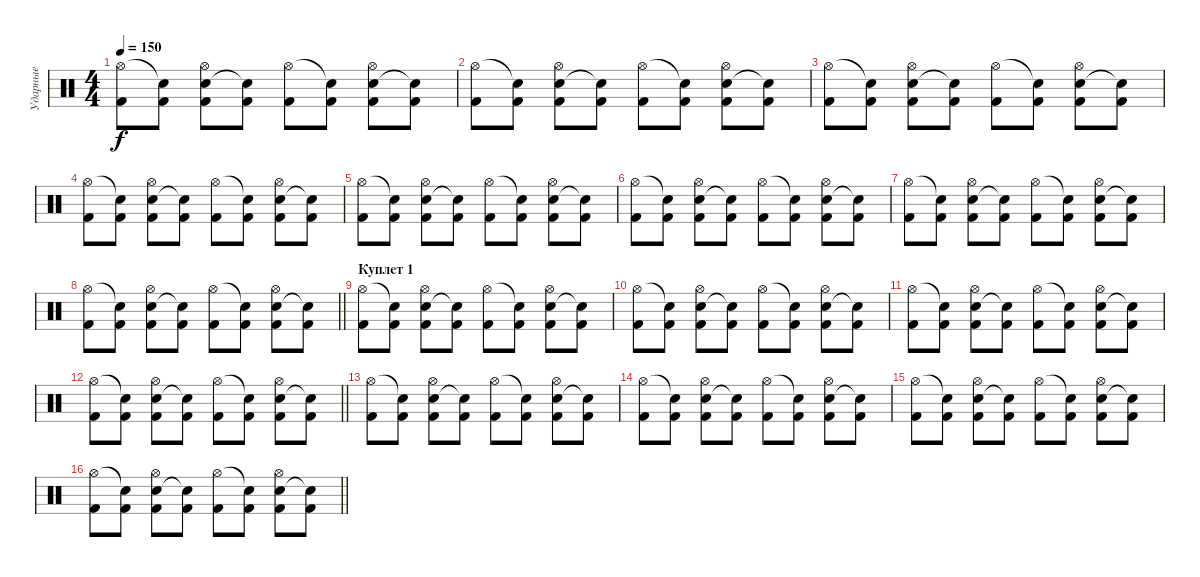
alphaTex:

\track ("Ударные" "Ударные") {instrument percussion}
\staff {score}
\articulation defaults
\ts (4 4)
\tempo 150
\clef neutral
\ks c
("Hi-Hat (open)" "Kick (hit) 2").8{dy f} ("Snare (hit)"{t} "Kick (hit) 2").8 ("Electric Snare (hit)" "Hi-Hat (open)" "Kick (hit) 2").8 ("Snare (hit)"{t} "Kick (hit) 2").8 ("Hi-Hat (open)" "Kick (hit) 2").8 ("Snare (hit)"{t} "Kick (hit) 2").8 ("Electric Snare (hit)" "Hi-Hat (open)" "Kick (hit) 2").8 ("Snare (hit)"{t} "Kick (hit) 2").8 |
("Hi-Hat (open)" "Kick (hit) 2").8 ("Snare (hit)"{t} "Kick (hit) 2").8 ("Electric Snare (hit)" "Hi-Hat (open)" "Kick (hit) 2").8 ("Snare (hit)"{t} "Kick (hit) 2").8 ("Hi-Hat (open)" "Kick (hit) 2").8 ("Snare (hit)"{t} "Kick (hit) 2").8 ("Electric Snare (hit)" "Hi-Hat (open)" "Kick (hit) 2").8 ("Snare (hit)"{t} "Kick (hit) 2").8 |
("Hi-Hat (open)" "Kick (hit) 2").8 ("Snare (hit)"{t} "Kick (hit) 2").8 ("Electric Snare (hit)" "Hi-Hat (open)" "Kick (hit) 2").8 ("Snare (hit)"{t} "Kick (hit) 2").8 ("Hi-Hat (open)" "Kick (hit) 2").8 ("Snare (hit)"{t} "Kick (hit) 2").8 ("Electric Snare (hit)" "Hi-Hat (open)" "Kick (hit) 2").8 ("Snare (hit)"{t} "Kick (hit) 2").8 |
("Hi-Hat (open)" "Kick (hit) 2").8 ("Snare (hit)"{t} "Kick (hit) 2").8 ("Electric Snare (hit)" "Hi-Hat (open)" "Kick (hit) 2").8 ("Snare (hit)"{t} "Kick (hit) 2").8 ("Hi-Hat (open)" "Kick (hit) 2").8 ("Snare (hit)"{t} "Kick (hit) 2").8 ("Electric Snare (hit)" "Hi-Hat (open)" "Kick (hit) 2").8 ("Snare (hit)"{t} "Kick (hit) 2").8 |
("Hi-Hat (open)" "Kick (hit) 2").8 ("Snare (hit)"{t} "Kick (hit) 2").8 ("Electric Snare (hit)" "Hi-Hat (open)" "Kick (hit) 2").8 ("Snare (hit)"{t} "Kick (hit) 2").8 ("Hi-Hat (open)" "Kick (hit) 2").8 ("Snare (hit)"{t} "Kick (hit) 2").8 ("Electric Snare (hit)" "Hi-Hat (open)" "Kick (hit) 2").8 ("Snare (hit)"{t} "Kick (hit) 2").8 |
("Hi-Hat (open)" "Kick (hit) 2").8 ("Snare (hit)"{t} "Kick (hit) 2").8 ("Electric Snare (hit)" "Hi-Hat (open)" "Kick (hit) 2").8 ("Snare (hit)"{t} "Kick (hit) 2").8 ("Hi-Hat (open)" "Kick (hit) 2").8 ("Snare (hit)"{t} "Kick (hit) 2").8 ("Electric Snare (hit)" "Hi-Hat (open)" "Kick (hit) 2").8 ("Snare (hit)"{t} "Kick (hit) 2").8 |
("Hi-Hat (open)" "Kick (hit) 2").8 ("Snare (hit)"{t} "Kick (hit) 2").8 ("Electric Snare (hit)" "Hi-Hat (open)" "Kick (hit) 2").8 ("Snare (hit)"{t} "Kick (hit) 2").8 ("Hi-Hat (open)" "Kick (hit) 2").8 ("Snare (hit)"{t} "Kick (hit) 2").8 ("Electric Snare (hit)" "Hi-Hat (open)" "Kick (hit) 2").8 ("Snare (hit)"{t} "Kick (hit) 2").8 |
\barLineRight lightlight
("Hi-Hat (open)" "Kick (hit) 2").8 ("Snare (hit)"{t} "Kick (hit) 2").8 ("Electric Snare (hit)" "Hi-Hat (open)" "Kick (hit) 2").8 ("Snare (hit)"{t} "Kick (hit) 2").8 ("Hi-Hat (open)" "Kick (hit) 2").8 ("Snare (hit)"{t} "Kick (hit) 2").8 ("Electric Snare (hit)" "Hi-Hat (open)" "Kick (hit) 2").8 ("Snare (hit)"{t} "Kick (hit) 2").8 |
\section ("" "Куплет 1")
("Hi-Hat (open)" "Kick (hit) 2").8 ("Snare (hit)"{t} "Kick (hit) 2").8 ("Electric Snare (hit)" "Hi-Hat (open)" "Kick (hit) 2").8 ("Snare (hit)"{t} "Kick (hit) 2").8 ("Hi-Hat (open)" "Kick (hit) 2").8 ("Snare (hit)"{t} "Kick (hit) 2").8 ("Electric Snare (hit)" "Hi-Hat (open)" "Kick (hit) 2").8 ("Snare (hit)"{t} "Kick (hit) 2").8 |
("Hi-Hat (open)" "Kick (hit) 2").8 ("Snare (hit)"{t} "Kick (hit) 2").8 ("Electric Snare (hit)" "Hi-Hat (open)" "Kick (hit) 2").8 ("Snare (hit)"{t} "Kick (hit) 2").8 ("Hi-Hat (open)" "Kick (hit) 2").8 ("Snare (hit)"{t} "Kick (hit) 2").8 ("Electric Snare (hit)" "Hi-Hat (open)" "Kick (hit) 2").8 ("Snare (hit)"{t} "Kick (hit) 2").8 |
("Hi-Hat (open)" "Kick (hit) 2").8 ("Snare (hit)"{t} "Kick (hit) 2").8 ("Electric Snare (hit)" "Hi-Hat (open)" "Kick (hit) 2").8 ("Snare (hit)"{t} "Kick (hit) 2").8 ("Hi-Hat (open)" "Kick (hit) 2").8 ("Snare (hit)"{t} "Kick (hit) 2").8 ("Electric Snare (hit)" "Hi-Hat (open)" "Kick (hit) 2").8 ("Snare (hit)"{t} "Kick (hit) 2").8 |
\barLineRight lightlight
("Hi-Hat (open)" "Kick (hit) 2").8 ("Snare (hit)"{t} "Kick (hit) 2").8 ("Electric Snare (hit)" "Hi-Hat (open)" "Kick (hit) 2").8 ("Snare (hit)"{t} "Kick (hit) 2").8 ("Hi-Hat (open)" "Kick (hit) 2").8 ("Snare (hit)"{t} "Kick (hit) 2").8 ("Electric Snare (hit)" "Hi-Hat (open)" "Kick (hit) 2").8 ("Snare (hit)"{t} "Kick (hit) 2").8 |
("Hi-Hat (open)" "Kick (hit) 2").8 ("Snare (hit)"{t} "Kick (hit) 2").8 ("Electric Snare (hit)" "Hi-Hat (open)" "Kick (hit) 2").8 ("Snare (hit)"{t} "Kick (hit) 2").8 ("Hi-Hat (open)" "Kick (hit) 2").8 ("Snare (hit)"{t} "Kick (hit) 2").8 ("Electric Snare (hit)" "Hi-Hat (open)" "Kick (hit) 2").8 ("Snare (hit)"{t} "Kick (hit) 2").8 |
("Hi-Hat (open)" "Kick (hit) 2").8 ("Snare (hit)"{t} "Kick (hit) 2").8 ("Electric Snare (hit)" "Hi-Hat (open)" "Kick (hit) 2").8 ("Snare (hit)"{t} "Kick (hit) 2").8 ("Hi-Hat (open)" "Kick (hit) 2").8 ("Snare (hit)"{t} "Kick (hit) 2").8 ("Electric Snare (hit)" "Hi-Hat (open)" "Kick (hit) 2").8 ("Snare (hit)"{t} "Kick (hit) 2").8 |
("Hi-Hat (open)" "Kick (hit) 2").8 ("Snare (hit)"{t} "Kick (hit) 2").8 ("Electric Snare (hit)" "Hi-Hat (open)" "Kick (hit) 2").8 ("Snare (hit)"{t} "Kick (hit) 2").8 ("Hi-Hat (open)" "Kick (hit) 2").8 ("Snare (hit)"{t} "Kick (hit) 2").8 ("Electric Snare (hit)" "Hi-Hat (open)" "Kick (hit) 2").8 ("Snare (hit)"{t} "Kick (hit) 2").8 |
\barLineRight lightlight
("Hi-Hat (open)" "Kick (hit) 2").8 ("Snare (hit)"{t} "Kick (hit) 2").8 ("Electric Snare (hit)" "Hi-Hat (open)" "Kick (hit) 2").8 ("Snare (hit)"{t} "Kick (hit) 2").8 ("Hi-Hat (open)" "Kick (hit) 2").8 ("Snare (hit)"{t} "Kick (hit) 2").8 ("Electric Snare (hit)" "Hi-Hat (open)" "Kick (hit) 2").8 ("Snare (hit)"{t} "Kick (hit) 2").8
